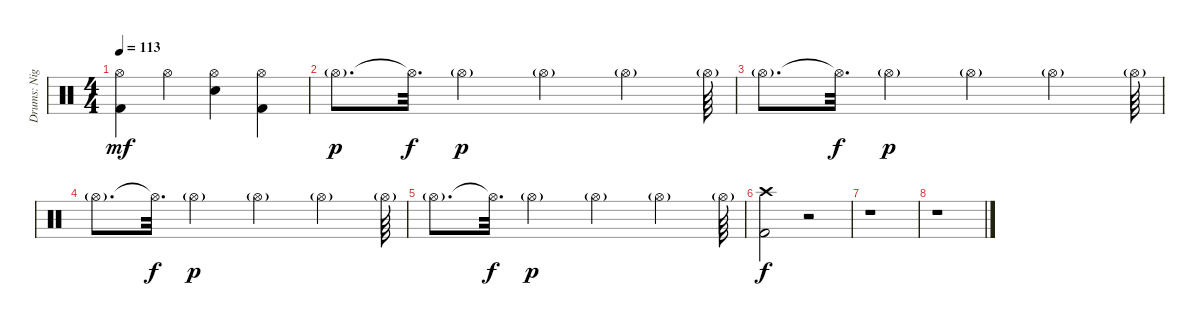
\track ("Drums: Nigel Olsson" "Drums: Nig") {instrument percussion}
\staff {score}
\articulation defaults
\ts (4 4)
\tempo 113
\clef neutral
\ks c
("Hi-Hat (open)" "Kick (hit) 2").4{dy mf} "Hi-Hat (open)".4 ("Hi-Hat (open)" "Snare (hit) 2").4 ("Hi-Hat (open)" "Kick (hit) 2").4 |
"Hi-Hat (open)"{g}.8{d dy p} "Hi-Hat (open)"{t}.32{d dy f} "Hi-Hat (open)"{g}.4{dy p} "Hi-Hat (open)"{g}.4 "Hi-Hat (open)"{g}.4 "Hi-Hat (open)"{g}.64 |
"Hi-Hat (open)"{g}.8{d} "Hi-Hat (open)"{t}.32{d dy f} "Hi-Hat (open)"{g}.4{dy p} "Hi-Hat (open)"{g}.4 "Hi-Hat (open)"{g}.4 "Hi-Hat (open)"{g}.64 |
"Hi-Hat (open)"{g}.8{d} "Hi-Hat (open)"{t}.32{d dy f} "Hi-Hat (open)"{g}.4{dy p} "Hi-Hat (open)"{g}.4 "Hi-Hat (open)"{g}.4 "Hi-Hat (open)"{g}.64 |
"Hi-Hat (open)"{g}.8{d} "Hi-Hat (open)"{t}.32{d dy f} "Hi-Hat (open)"{g}.4{dy p} "Hi-Hat (open)"{g}.4 "Hi-Hat (open)"{g}.4 "Hi-Hat (open)"{g}.64 |
("Crash high (hit)" "Kick (hit) 2").2{dy f} r.2 |
r.1 |
r.1
